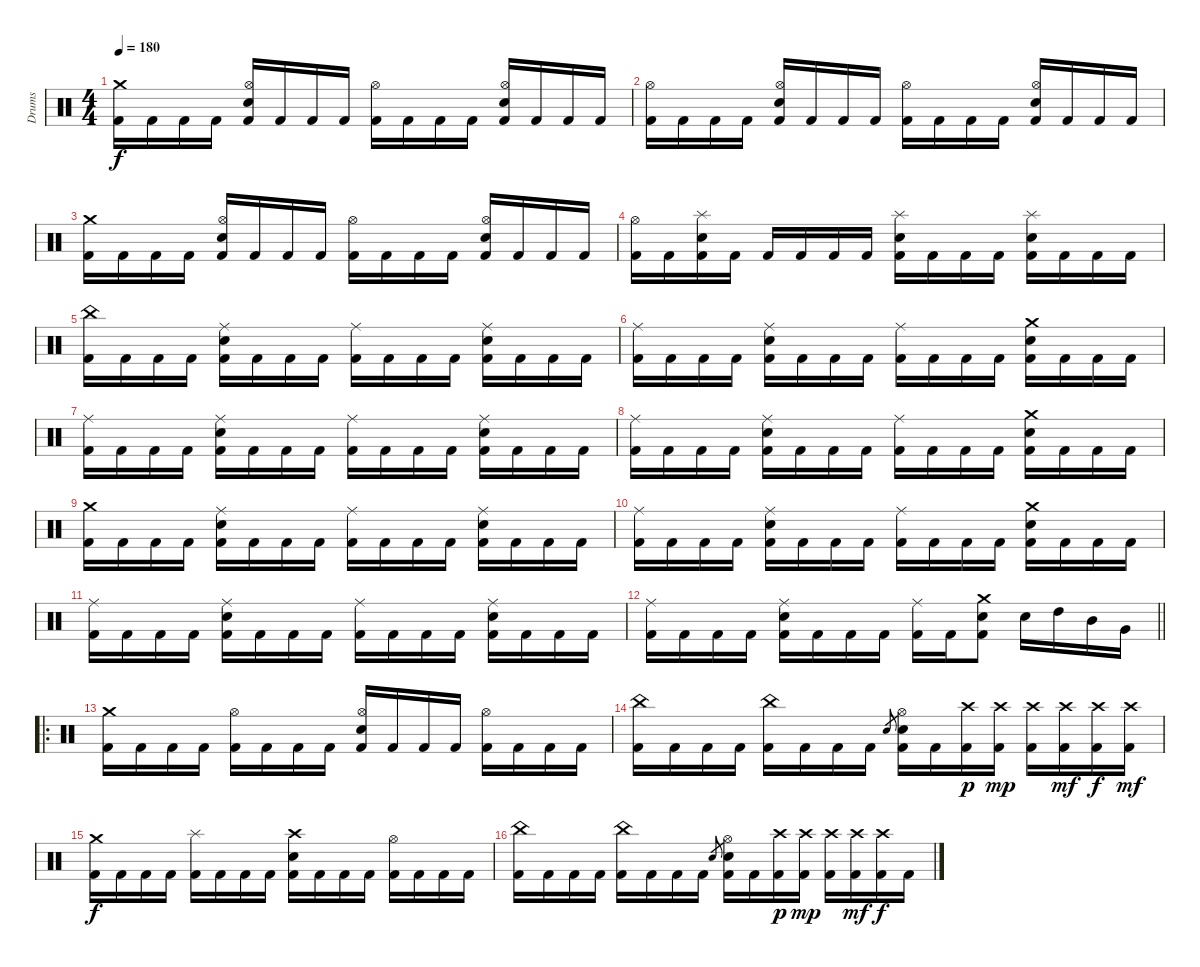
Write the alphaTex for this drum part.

\track ("Drums" "Drums") {instrument percussion}
\staff {score}
\articulation defaults
\ts (4 4)
\tempo 180
\clef neutral
\ks c
("Crash medium (hit)" "Kick (hit) 2").16{dy f} "Kick (hit) 2".16 "Kick (hit) 2".16 "Kick (hit) 2".16 ("Hi-Hat (open)" "Electric Snare (hit)" "Kick (hit) 2").16 "Kick (hit) 2".16 "Kick (hit) 2".16 "Kick (hit) 2".16 ("Hi-Hat (open)" "Kick (hit) 2").16 "Kick (hit) 2".16 "Kick (hit) 2".16 "Kick (hit) 2".16 ("Hi-Hat (open)" "Electric Snare (hit)" "Kick (hit) 2").16 "Kick (hit) 2".16 "Kick (hit) 2".16 "Kick (hit) 2".16 |
("Hi-Hat (open)" "Kick (hit) 2").16 "Kick (hit) 2".16 "Kick (hit) 2".16 "Kick (hit) 2".16 ("Hi-Hat (open)" "Electric Snare (hit)" "Kick (hit) 2").16 "Kick (hit) 2".16 "Kick (hit) 2".16 "Kick (hit) 2".16 ("Hi-Hat (open)" "Kick (hit) 2").16 "Kick (hit) 2".16 "Kick (hit) 2".16 "Kick (hit) 2".16 ("Hi-Hat (open)" "Electric Snare (hit)" "Kick (hit) 2").16 "Kick (hit) 2".16 "Kick (hit) 2".16 "Kick (hit) 2".16 |
("Crash medium (hit)" "Kick (hit) 2").16 "Kick (hit) 2".16 "Kick (hit) 2".16 "Kick (hit) 2".16 ("Hi-Hat (open)" "Electric Snare (hit)" "Kick (hit) 2").16 "Kick (hit) 2".16 "Kick (hit) 2".16 "Kick (hit) 2".16 ("Hi-Hat (open)" "Kick (hit) 2").16 "Kick (hit) 2".16 "Kick (hit) 2".16 "Kick (hit) 2".16 ("Hi-Hat (open)" "Electric Snare (hit)" "Kick (hit) 2").16 "Kick (hit) 2".16 "Kick (hit) 2".16 "Kick (hit) 2".16 |
("Hi-Hat (open)" "Kick (hit) 2").16 "Kick (hit) 2".16 ("Splash (hit)" "Electric Snare (hit)" "Kick (hit) 2").16 "Kick (hit) 2".16 "Kick (hit) 2".16 "Kick (hit) 2".16 "Kick (hit) 2".16 "Kick (hit) 2".16 ("Splash (hit)" "Electric Snare (hit)" "Kick (hit) 2").16 "Kick (hit) 2".16 "Kick (hit) 2".16 "Kick (hit) 2".16 ("Splash (hit)" "Electric Snare (hit)" "Kick (hit) 2").16 "Kick (hit) 2".16 "Kick (hit) 2".16 "Kick (hit) 2".16 |
("China (hit)" "Kick (hit) 2").16 "Kick (hit) 2".16 "Kick (hit) 2".16 "Kick (hit) 2".16 ("Ride (middle)" "Electric Snare (hit)" "Kick (hit) 2").16 "Kick (hit) 2".16 "Kick (hit) 2".16 "Kick (hit) 2".16 ("Ride (middle)" "Kick (hit) 2").16 "Kick (hit) 2".16 "Kick (hit) 2".16 "Kick (hit) 2".16 ("Ride (middle)" "Electric Snare (hit)" "Kick (hit) 2").16 "Kick (hit) 2".16 "Kick (hit) 2".16 "Kick (hit) 2".16 |
("Ride (middle)" "Kick (hit) 2").16 "Kick (hit) 2".16 "Kick (hit) 2".16 "Kick (hit) 2".16 ("Ride (middle)" "Electric Snare (hit)" "Kick (hit) 2").16 "Kick (hit) 2".16 "Kick (hit) 2".16 "Kick (hit) 2".16 ("Ride (middle)" "Kick (hit) 2").16 "Kick (hit) 2".16 "Kick (hit) 2".16 "Kick (hit) 2".16 ("Crash medium (hit)" "Electric Snare (hit)" "Kick (hit) 2").16 "Kick (hit) 2".16 "Kick (hit) 2".16 "Kick (hit) 2".16 |
("Ride (middle)" "Kick (hit) 2").16 "Kick (hit) 2".16 "Kick (hit) 2".16 "Kick (hit) 2".16 ("Ride (middle)" "Electric Snare (hit)" "Kick (hit) 2").16 "Kick (hit) 2".16 "Kick (hit) 2".16 "Kick (hit) 2".16 ("Ride (middle)" "Kick (hit) 2").16 "Kick (hit) 2".16 "Kick (hit) 2".16 "Kick (hit) 2".16 ("Ride (middle)" "Electric Snare (hit)" "Kick (hit) 2").16 "Kick (hit) 2".16 "Kick (hit) 2".16 "Kick (hit) 2".16 |
("Ride (middle)" "Kick (hit) 2").16 "Kick (hit) 2".16 "Kick (hit) 2".16 "Kick (hit) 2".16 ("Ride (middle)" "Electric Snare (hit)" "Kick (hit) 2").16 "Kick (hit) 2".16 "Kick (hit) 2".16 "Kick (hit) 2".16 ("Ride (middle)" "Kick (hit) 2").16 "Kick (hit) 2".16 "Kick (hit) 2".16 "Kick (hit) 2".16 ("Crash medium (hit)" "Electric Snare (hit)" "Kick (hit) 2").16 "Kick (hit) 2".16 "Kick (hit) 2".16 "Kick (hit) 2".16 |
("Crash medium (hit)" "Kick (hit) 2").16 "Kick (hit) 2".16 "Kick (hit) 2".16 "Kick (hit) 2".16 ("Ride (middle)" "Electric Snare (hit)" "Kick (hit) 2").16 "Kick (hit) 2".16 "Kick (hit) 2".16 "Kick (hit) 2".16 ("Ride (middle)" "Kick (hit) 2").16 "Kick (hit) 2".16 "Kick (hit) 2".16 "Kick (hit) 2".16 ("Ride (middle)" "Electric Snare (hit)" "Kick (hit) 2").16 "Kick (hit) 2".16 "Kick (hit) 2".16 "Kick (hit) 2".16 |
("Ride (middle)" "Kick (hit) 2").16 "Kick (hit) 2".16 "Kick (hit) 2".16 "Kick (hit) 2".16 ("Ride (middle)" "Electric Snare (hit)" "Kick (hit) 2").16 "Kick (hit) 2".16 "Kick (hit) 2".16 "Kick (hit) 2".16 ("Ride (middle)" "Kick (hit) 2").16 "Kick (hit) 2".16 "Kick (hit) 2".16 "Kick (hit) 2".16 ("Crash medium (hit)" "Electric Snare (hit)" "Kick (hit) 2").16 "Kick (hit) 2".16 "Kick (hit) 2".16 "Kick (hit) 2".16 |
("Ride (middle)" "Kick (hit) 2").16 "Kick (hit) 2".16 "Kick (hit) 2".16 "Kick (hit) 2".16 ("Ride (middle)" "Electric Snare (hit)" "Kick (hit) 2").16 "Kick (hit) 2".16 "Kick (hit) 2".16 "Kick (hit) 2".16 ("Ride (middle)" "Kick (hit) 2").16 "Kick (hit) 2".16 "Kick (hit) 2".16 "Kick (hit) 2".16 ("Ride (middle)" "Electric Snare (hit)" "Kick (hit) 2").16 "Kick (hit) 2".16 "Kick (hit) 2".16 "Kick (hit) 2".16 |
\barLineRight lightlight
("Ride (middle)" "Kick (hit) 2").16 "Kick (hit) 2".16 "Kick (hit) 2".16 "Kick (hit) 2".16 ("Ride (middle)" "Electric Snare (hit)" "Kick (hit) 2").16 "Kick (hit) 2".16 "Kick (hit) 2".16 "Kick (hit) 2".16 ("Ride (middle)" "Kick (hit) 2").16 "Kick (hit) 2".16 ("Crash medium (hit)" "Electric Snare (hit)" "Kick (hit) 2").8 "Electric Snare (hit)".16 "High Tom (hit)".16 "Mid Tom (hit)".16 "Very Low Tom (hit)".16 |
\ro
\section ("" "")
("Crash medium (hit)" "Kick (hit) 2").16 "Kick (hit) 2".16 "Kick (hit) 2".16 "Kick (hit) 2".16 ("Hi-Hat (open)" "Kick (hit) 2").16 "Kick (hit) 2".16 "Kick (hit) 2".16 "Kick (hit) 2".16 ("Hi-Hat (open)" "Electric Snare (hit)" "Kick (hit) 2").16 "Kick (hit) 2".16 "Kick (hit) 2".16 "Kick (hit) 2".16 ("Hi-Hat (open)" "Kick (hit) 2").16 "Kick (hit) 2".16 "Kick (hit) 2".16 "Kick (hit) 2".16 |
("China (hit)" "Kick (hit) 2").16 "Kick (hit) 2".16 "Kick (hit) 2".16 "Kick (hit) 2".16 ("China (hit)" "Kick (hit) 2").16 "Kick (hit) 2".16 "Kick (hit) 2".16 "Kick (hit) 2".16 "Electric Snare (hit)".8{gr} ("Hi-Hat (open)" "Electric Snare (hit)" "Kick (hit) 2").16 "Kick (hit) 2".16 ("Crash high (hit)" "Kick (hit) 2").16{dy p} ("Crash high (hit)" "Kick (hit) 2").16{dy mp} ("Crash high (hit)" "Kick (hit) 2").16 ("Crash high (hit)" "Kick (hit) 2").16{dy mf} ("Crash high (hit)" "Kick (hit) 2").16{dy f} ("Crash high (hit)" "Kick (hit) 2").16{dy mf} |
("Crash medium (hit)" "Kick (hit) 2").16{dy f} "Kick (hit) 2".16 "Kick (hit) 2".16 "Kick (hit) 2".16 ("Splash (hit)" "Kick (hit) 2").16 "Kick (hit) 2".16 "Kick (hit) 2".16 "Kick (hit) 2".16 ("Crash high (hit)" "Electric Snare (hit)" "Kick (hit) 2").16 "Kick (hit) 2".16 "Kick (hit) 2".16 "Kick (hit) 2".16 ("Hi-Hat (open)" "Kick (hit) 2").16 "Kick (hit) 2".16 "Kick (hit) 2".16 "Kick (hit) 2".16 |
("China (hit)" "Kick (hit) 2").16 "Kick (hit) 2".16 "Kick (hit) 2".16 "Kick (hit) 2".16 ("China (hit)" "Kick (hit) 2").16 "Kick (hit) 2".16 "Kick (hit) 2".16 "Kick (hit) 2".16 "Electric Snare (hit)".8{gr} ("Hi-Hat (open)" "Electric Snare (hit)" "Kick (hit) 2").16 "Kick (hit) 2".16 ("Crash high (hit)" "Kick (hit) 2").16{dy p} ("Crash high (hit)" "Kick (hit) 2").16{dy mp} ("Crash high (hit)" "Kick (hit) 2").16 ("Crash high (hit)" "Kick (hit) 2").16{dy mf} ("Crash high (hit)" "Kick (hit) 2").16{dy f} "Kick (hit) 2".16
